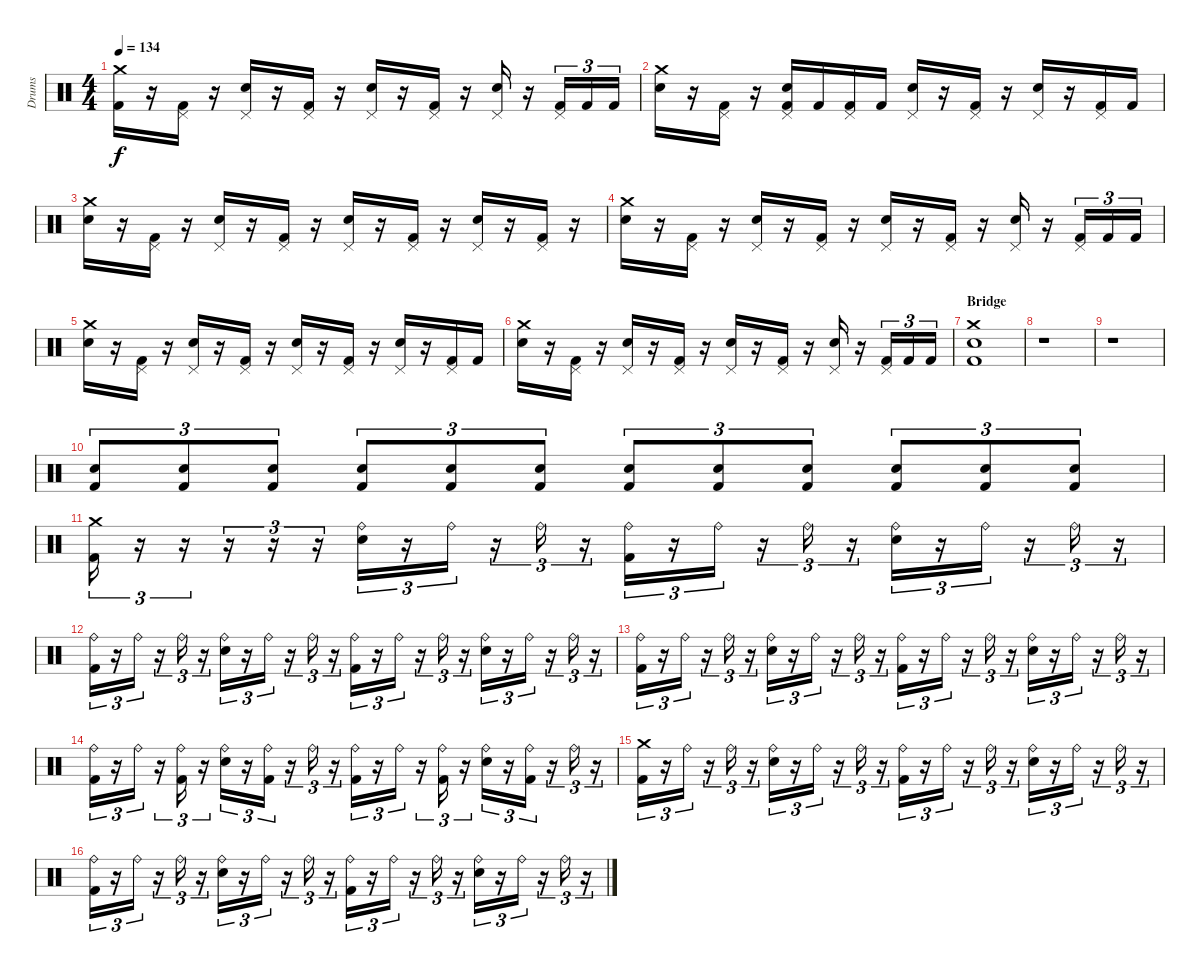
\track ("Drums" "Drums") {instrument percussion}
\staff {score}
\articulation defaults
\ts (4 4)
\tempo 134
\clef neutral
\ks c
("Crash medium (hit)" "Kick (hit) 2").16{dy f} r.16 ("Pedal Hi-Hat (hit)" "Kick (hit) 2").16 r.16 ("Pedal Hi-Hat (hit)" "Electric Snare (hit)").16 r.16 ("Pedal Hi-Hat (hit)" "Kick (hit) 2").16 r.16 ("Pedal Hi-Hat (hit)" "Electric Snare (hit)").16 r.16 ("Pedal Hi-Hat (hit)" "Kick (hit) 2").16 r.16 ("Pedal Hi-Hat (hit)" "Electric Snare (hit)").16 r.16 ("Pedal Hi-Hat (hit)" "Kick (hit) 2").16{tu (3 2)} "Kick (hit) 2".16{tu (3 2)} "Kick (hit) 2".16{tu (3 2)} |
("Crash medium (hit)" "Electric Snare (hit)").16 r.16 ("Pedal Hi-Hat (hit)" "Kick (hit) 2").16 r.16 ("Pedal Hi-Hat (hit)" "Electric Snare (hit)" "Kick (hit) 2").16 "Kick (hit) 2".16 ("Pedal Hi-Hat (hit)" "Kick (hit) 2").16 "Kick (hit) 2".16 ("Pedal Hi-Hat (hit)" "Electric Snare (hit)").16 r.16 ("Pedal Hi-Hat (hit)" "Kick (hit) 2").16 r.16 ("Pedal Hi-Hat (hit)" "Electric Snare (hit)").16 r.16 ("Pedal Hi-Hat (hit)" "Kick (hit) 2").16 "Kick (hit) 2".16 |
("Crash medium (hit)" "Electric Snare (hit)").16 r.16 ("Pedal Hi-Hat (hit)" "Kick (hit) 2").16 r.16 ("Pedal Hi-Hat (hit)" "Electric Snare (hit)").16 r.16 ("Pedal Hi-Hat (hit)" "Kick (hit) 2").16 r.16 ("Pedal Hi-Hat (hit)" "Electric Snare (hit)").16 r.16 ("Pedal Hi-Hat (hit)" "Kick (hit) 2").16 r.16 ("Pedal Hi-Hat (hit)" "Electric Snare (hit)").16 r.16 ("Pedal Hi-Hat (hit)" "Kick (hit) 2").16 r.16 |
("Crash medium (hit)" "Electric Snare (hit)").16 r.16 ("Pedal Hi-Hat (hit)" "Kick (hit) 2").16 r.16 ("Pedal Hi-Hat (hit)" "Electric Snare (hit)").16 r.16 ("Pedal Hi-Hat (hit)" "Kick (hit) 2").16 r.16 ("Pedal Hi-Hat (hit)" "Electric Snare (hit)").16 r.16 ("Pedal Hi-Hat (hit)" "Kick (hit) 2").16 r.16 ("Pedal Hi-Hat (hit)" "Electric Snare (hit)").16 r.16 ("Pedal Hi-Hat (hit)" "Kick (hit) 2").16{tu (3 2)} "Kick (hit) 2".16{tu (3 2)} "Kick (hit) 2".16{tu (3 2)} |
("Crash medium (hit)" "Electric Snare (hit)").16 r.16 ("Pedal Hi-Hat (hit)" "Kick (hit) 2").16 r.16 ("Pedal Hi-Hat (hit)" "Electric Snare (hit)").16 r.16 ("Pedal Hi-Hat (hit)" "Kick (hit) 2").16 r.16 ("Pedal Hi-Hat (hit)" "Electric Snare (hit)").16 r.16 ("Pedal Hi-Hat (hit)" "Kick (hit) 2").16 r.16 ("Pedal Hi-Hat (hit)" "Electric Snare (hit)").16 r.16 ("Pedal Hi-Hat (hit)" "Kick (hit) 2").16 "Kick (hit) 2".16 |
("Crash medium (hit)" "Electric Snare (hit)").16 r.16 ("Pedal Hi-Hat (hit)" "Kick (hit) 2").16 r.16 ("Pedal Hi-Hat (hit)" "Electric Snare (hit)").16 r.16 ("Pedal Hi-Hat (hit)" "Kick (hit) 2").16 r.16 ("Pedal Hi-Hat (hit)" "Electric Snare (hit)").16 r.16 ("Pedal Hi-Hat (hit)" "Kick (hit) 2").16 r.16 ("Pedal Hi-Hat (hit)" "Electric Snare (hit)").16 r.16 ("Pedal Hi-Hat (hit)" "Kick (hit) 2").16{tu (3 2)} "Kick (hit) 2".16{tu (3 2)} "Kick (hit) 2".16{tu (3 2)} |
\section ("" "Bridge")
("Crash medium (hit)" "Electric Snare (hit)" "Kick (hit) 2").1 |
r.1 |
r.1 |
("Electric Snare (hit)" "Kick (hit) 2").8{tu (3 2)} ("Electric Snare (hit)" "Kick (hit) 2").8{tu (3 2)} ("Electric Snare (hit)" "Kick (hit) 2").8{tu (3 2)} ("Electric Snare (hit)" "Kick (hit) 2").8{tu (3 2)} ("Electric Snare (hit)" "Kick (hit) 2").8{tu (3 2)} ("Electric Snare (hit)" "Kick (hit) 2").8{tu (3 2)} ("Electric Snare (hit)" "Kick (hit) 2").8{tu (3 2)} ("Electric Snare (hit)" "Kick (hit) 2").8{tu (3 2)} ("Electric Snare (hit)" "Kick (hit) 2").8{tu (3 2)} ("Electric Snare (hit)" "Kick (hit) 2").8{tu (3 2)} ("Electric Snare (hit)" "Kick (hit) 2").8{tu (3 2)} ("Electric Snare (hit)" "Kick (hit) 2").8{tu (3 2)} |
\section ("" "")
("Crash medium (hit)" "Kick (hit) 2").16{tu (3 2)} r.16{tu (3 2)} r.16{tu (3 2)} r.16{tu (3 2)} r.16{tu (3 2)} r.16{tu (3 2)} ("Ride (bell)" "Electric Snare (hit)").16{tu (3 2)} r.16{tu (3 2)} "Ride (bell)".16{tu (3 2)} r.16{tu (3 2)} "Ride (bell)".16{tu (3 2)} r.16{tu (3 2)} ("Ride (bell)" "Kick (hit) 2").16{tu (3 2)} r.16{tu (3 2)} "Ride (bell)".16{tu (3 2)} r.16{tu (3 2)} "Ride (bell)".16{tu (3 2)} r.16{tu (3 2)} ("Ride (bell)" "Electric Snare (hit)").16{tu (3 2)} r.16{tu (3 2)} "Ride (bell)".16{tu (3 2)} r.16{tu (3 2)} "Ride (bell)".16{tu (3 2)} r.16{tu (3 2)} |
("Ride (bell)" "Kick (hit) 2").16{tu (3 2)} r.16{tu (3 2)} "Ride (bell)".16{tu (3 2)} r.16{tu (3 2)} "Ride (bell)".16{tu (3 2)} r.16{tu (3 2)} ("Ride (bell)" "Electric Snare (hit)").16{tu (3 2)} r.16{tu (3 2)} "Ride (bell)".16{tu (3 2)} r.16{tu (3 2)} "Ride (bell)".16{tu (3 2)} r.16{tu (3 2)} ("Ride (bell)" "Kick (hit) 2").16{tu (3 2)} r.16{tu (3 2)} "Ride (bell)".16{tu (3 2)} r.16{tu (3 2)} "Ride (bell)".16{tu (3 2)} r.16{tu (3 2)} ("Ride (bell)" "Electric Snare (hit)").16{tu (3 2)} r.16{tu (3 2)} "Ride (bell)".16{tu (3 2)} r.16{tu (3 2)} "Ride (bell)".16{tu (3 2)} r.16{tu (3 2)} |
("Ride (bell)" "Kick (hit) 2").16{tu (3 2)} r.16{tu (3 2)} "Ride (bell)".16{tu (3 2)} r.16{tu (3 2)} "Ride (bell)".16{tu (3 2)} r.16{tu (3 2)} ("Ride (bell)" "Electric Snare (hit)").16{tu (3 2)} r.16{tu (3 2)} "Ride (bell)".16{tu (3 2)} r.16{tu (3 2)} "Ride (bell)".16{tu (3 2)} r.16{tu (3 2)} ("Ride (bell)" "Kick (hit) 2").16{tu (3 2)} r.16{tu (3 2)} "Ride (bell)".16{tu (3 2)} r.16{tu (3 2)} "Ride (bell)".16{tu (3 2)} r.16{tu (3 2)} ("Ride (bell)" "Electric Snare (hit)").16{tu (3 2)} r.16{tu (3 2)} "Ride (bell)".16{tu (3 2)} r.16{tu (3 2)} "Ride (bell)".16{tu (3 2)} r.16{tu (3 2)} |
("Ride (bell)" "Kick (hit) 2").16{tu (3 2)} r.16{tu (3 2)} "Ride (bell)".16{tu (3 2)} r.16{tu (3 2)} ("Ride (bell)" "Kick (hit) 2").16{tu (3 2)} r.16{tu (3 2)} ("Ride (bell)" "Electric Snare (hit)").16{tu (3 2)} r.16{tu (3 2)} ("Ride (bell)" "Kick (hit) 2").16{tu (3 2)} r.16{tu (3 2)} "Ride (bell)".16{tu (3 2)} r.16{tu (3 2)} ("Ride (bell)" "Kick (hit) 2").16{tu (3 2)} r.16{tu (3 2)} "Ride (bell)".16{tu (3 2)} r.16{tu (3 2)} ("Ride (bell)" "Kick (hit) 2").16{tu (3 2)} r.16{tu (3 2)} ("Ride (bell)" "Electric Snare (hit)").16{tu (3 2)} r.16{tu (3 2)} ("Ride (bell)" "Kick (hit) 2").16{tu (3 2)} r.16{tu (3 2)} "Ride (bell)".16{tu (3 2)} r.16{tu (3 2)} |
("Crash medium (hit)" "Kick (hit) 2").16{tu (3 2)} r.16{tu (3 2)} "Ride (bell)".16{tu (3 2)} r.16{tu (3 2)} "Ride (bell)".16{tu (3 2)} r.16{tu (3 2)} ("Ride (bell)" "Electric Snare (hit)").16{tu (3 2)} r.16{tu (3 2)} "Ride (bell)".16{tu (3 2)} r.16{tu (3 2)} "Ride (bell)".16{tu (3 2)} r.16{tu (3 2)} ("Ride (bell)" "Kick (hit) 2").16{tu (3 2)} r.16{tu (3 2)} "Ride (bell)".16{tu (3 2)} r.16{tu (3 2)} "Ride (bell)".16{tu (3 2)} r.16{tu (3 2)} ("Ride (bell)" "Electric Snare (hit)").16{tu (3 2)} r.16{tu (3 2)} "Ride (bell)".16{tu (3 2)} r.16{tu (3 2)} "Ride (bell)".16{tu (3 2)} r.16{tu (3 2)} |
("Ride (bell)" "Kick (hit) 2").16{tu (3 2)} r.16{tu (3 2)} "Ride (bell)".16{tu (3 2)} r.16{tu (3 2)} "Ride (bell)".16{tu (3 2)} r.16{tu (3 2)} ("Ride (bell)" "Electric Snare (hit)").16{tu (3 2)} r.16{tu (3 2)} "Ride (bell)".16{tu (3 2)} r.16{tu (3 2)} "Ride (bell)".16{tu (3 2)} r.16{tu (3 2)} ("Ride (bell)" "Kick (hit) 2").16{tu (3 2)} r.16{tu (3 2)} "Ride (bell)".16{tu (3 2)} r.16{tu (3 2)} "Ride (bell)".16{tu (3 2)} r.16{tu (3 2)} ("Ride (bell)" "Electric Snare (hit)").16{tu (3 2)} r.16{tu (3 2)} "Ride (bell)".16{tu (3 2)} r.16{tu (3 2)} "Ride (bell)".16{tu (3 2)} r.16{tu (3 2)}
